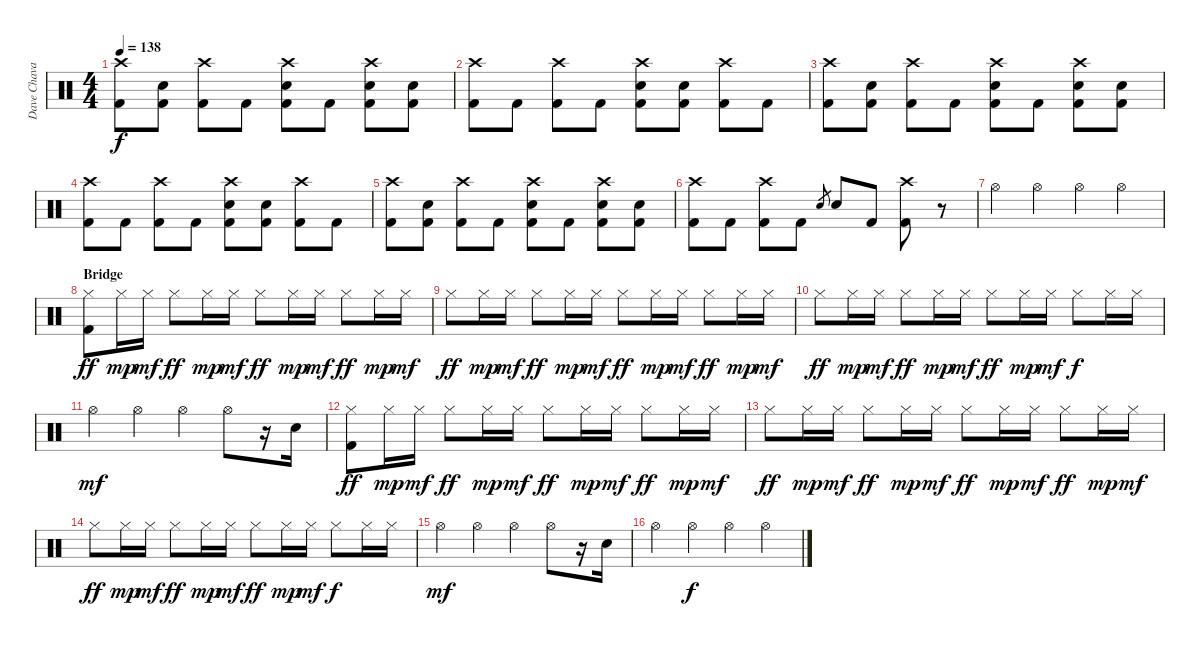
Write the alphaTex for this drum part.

\track ("Dave Chavarri - Drums" "Dave Chava") {instrument percussion}
\staff {score}
\articulation defaults
\ts (4 4)
\tempo 138
\clef neutral
\ks c
("Crash high (hit)" "Kick (hit) 2").8{dy f} ("Electric Snare (hit)" "Kick (hit) 2").8 ("Crash high (hit)" "Kick (hit) 2").8 "Kick (hit) 2".8 ("Crash high (hit)" "Electric Snare (hit)" "Kick (hit) 2").8 "Kick (hit) 2".8 ("Crash high (hit)" "Electric Snare (hit)" "Kick (hit) 2").8 ("Electric Snare (hit)" "Kick (hit) 2").8 |
("Crash high (hit)" "Kick (hit) 2").8 "Kick (hit) 2".8 ("Crash high (hit)" "Kick (hit) 2").8 "Kick (hit) 2".8 ("Crash high (hit)" "Electric Snare (hit)" "Kick (hit) 2").8 ("Electric Snare (hit)" "Kick (hit) 2").8 ("Crash high (hit)" "Kick (hit) 2").8 "Kick (hit) 2".8 |
("Crash high (hit)" "Kick (hit) 2").8 ("Electric Snare (hit)" "Kick (hit) 2").8 ("Crash high (hit)" "Kick (hit) 2").8 "Kick (hit) 2".8 ("Crash high (hit)" "Electric Snare (hit)" "Kick (hit) 2").8 "Kick (hit) 2".8 ("Crash high (hit)" "Electric Snare (hit)" "Kick (hit) 2").8 ("Electric Snare (hit)" "Kick (hit) 2").8 |
("Crash high (hit)" "Kick (hit) 2").8 "Kick (hit) 2".8 ("Crash high (hit)" "Kick (hit) 2").8 "Kick (hit) 2".8 ("Crash high (hit)" "Electric Snare (hit)" "Kick (hit) 2").8 ("Electric Snare (hit)" "Kick (hit) 2").8 ("Crash high (hit)" "Kick (hit) 2").8 "Kick (hit) 2".8 |
("Crash high (hit)" "Kick (hit) 2").8 ("Electric Snare (hit)" "Kick (hit) 2").8 ("Crash high (hit)" "Kick (hit) 2").8 "Kick (hit) 2".8 ("Crash high (hit)" "Electric Snare (hit)" "Kick (hit) 2").8 "Kick (hit) 2".8 ("Crash high (hit)" "Electric Snare (hit)" "Kick (hit) 2").8 ("Electric Snare (hit)" "Kick (hit) 2").8 |
("Crash high (hit)" "Kick (hit) 2").8 "Kick (hit) 2".8 ("Crash high (hit)" "Kick (hit) 2").8 "Kick (hit) 2".8 "Electric Snare (hit)".8{gr} "Electric Snare (hit)".8 "Kick (hit) 2".8 ("Crash high (hit)" "Kick (hit) 2").8 r.8 |
"Hi-Hat (open)".4 "Hi-Hat (open)".4 "Hi-Hat (open)".4 "Hi-Hat (open)".4 |
\section ("" "Bridge")
("Hi-Hat (closed)" "Kick (hit) 2").8{dy ff} "Hi-Hat (closed)".16{dy mp} "Hi-Hat (closed)".16{dy mf} "Hi-Hat (closed)".8{dy ff} "Hi-Hat (closed)".16{dy mp} "Hi-Hat (closed)".16{dy mf} "Hi-Hat (closed)".8{dy ff} "Hi-Hat (closed)".16{dy mp} "Hi-Hat (closed)".16{dy mf} "Hi-Hat (closed)".8{dy ff} "Hi-Hat (closed)".16{dy mp} "Hi-Hat (closed)".16{dy mf} |
"Hi-Hat (closed)".8{dy ff} "Hi-Hat (closed)".16{dy mp} "Hi-Hat (closed)".16{dy mf} "Hi-Hat (closed)".8{dy ff} "Hi-Hat (closed)".16{dy mp} "Hi-Hat (closed)".16{dy mf} "Hi-Hat (closed)".8{dy ff} "Hi-Hat (closed)".16{dy mp} "Hi-Hat (closed)".16{dy mf} "Hi-Hat (closed)".8{dy ff} "Hi-Hat (closed)".16{dy mp} "Hi-Hat (closed)".16{dy mf} |
"Hi-Hat (closed)".8{dy ff} "Hi-Hat (closed)".16{dy mp} "Hi-Hat (closed)".16{dy mf} "Hi-Hat (closed)".8{dy ff} "Hi-Hat (closed)".16{dy mp} "Hi-Hat (closed)".16{dy mf} "Hi-Hat (closed)".8{dy ff} "Hi-Hat (closed)".16{dy mp} "Hi-Hat (closed)".16{dy mf} "Hi-Hat (closed)".8{dy f} "Hi-Hat (closed)".16 "Hi-Hat (closed)".16 |
"Hi-Hat (open)".4{dy mf} "Hi-Hat (open)".4 "Hi-Hat (open)".4 "Hi-Hat (open)".8 r.16 "Electric Snare (hit)".16 |
("Hi-Hat (closed)" "Kick (hit) 2").8{dy ff} "Hi-Hat (closed)".16{dy mp} "Hi-Hat (closed)".16{dy mf} "Hi-Hat (closed)".8{dy ff} "Hi-Hat (closed)".16{dy mp} "Hi-Hat (closed)".16{dy mf} "Hi-Hat (closed)".8{dy ff} "Hi-Hat (closed)".16{dy mp} "Hi-Hat (closed)".16{dy mf} "Hi-Hat (closed)".8{dy ff} "Hi-Hat (closed)".16{dy mp} "Hi-Hat (closed)".16{dy mf} |
"Hi-Hat (closed)".8{dy ff} "Hi-Hat (closed)".16{dy mp} "Hi-Hat (closed)".16{dy mf} "Hi-Hat (closed)".8{dy ff} "Hi-Hat (closed)".16{dy mp} "Hi-Hat (closed)".16{dy mf} "Hi-Hat (closed)".8{dy ff} "Hi-Hat (closed)".16{dy mp} "Hi-Hat (closed)".16{dy mf} "Hi-Hat (closed)".8{dy ff} "Hi-Hat (closed)".16{dy mp} "Hi-Hat (closed)".16{dy mf} |
"Hi-Hat (closed)".8{dy ff} "Hi-Hat (closed)".16{dy mp} "Hi-Hat (closed)".16{dy mf} "Hi-Hat (closed)".8{dy ff} "Hi-Hat (closed)".16{dy mp} "Hi-Hat (closed)".16{dy mf} "Hi-Hat (closed)".8{dy ff} "Hi-Hat (closed)".16{dy mp} "Hi-Hat (closed)".16{dy mf} "Hi-Hat (closed)".8{dy f} "Hi-Hat (closed)".16 "Hi-Hat (closed)".16 |
"Hi-Hat (open)".4{dy mf} "Hi-Hat (open)".4 "Hi-Hat (open)".4 "Hi-Hat (open)".8 r.16 "Electric Snare (hit)".16 |
"Hi-Hat (open)".4 "Hi-Hat (open)".4{dy f} "Hi-Hat (open)".4 "Hi-Hat (open)".4
